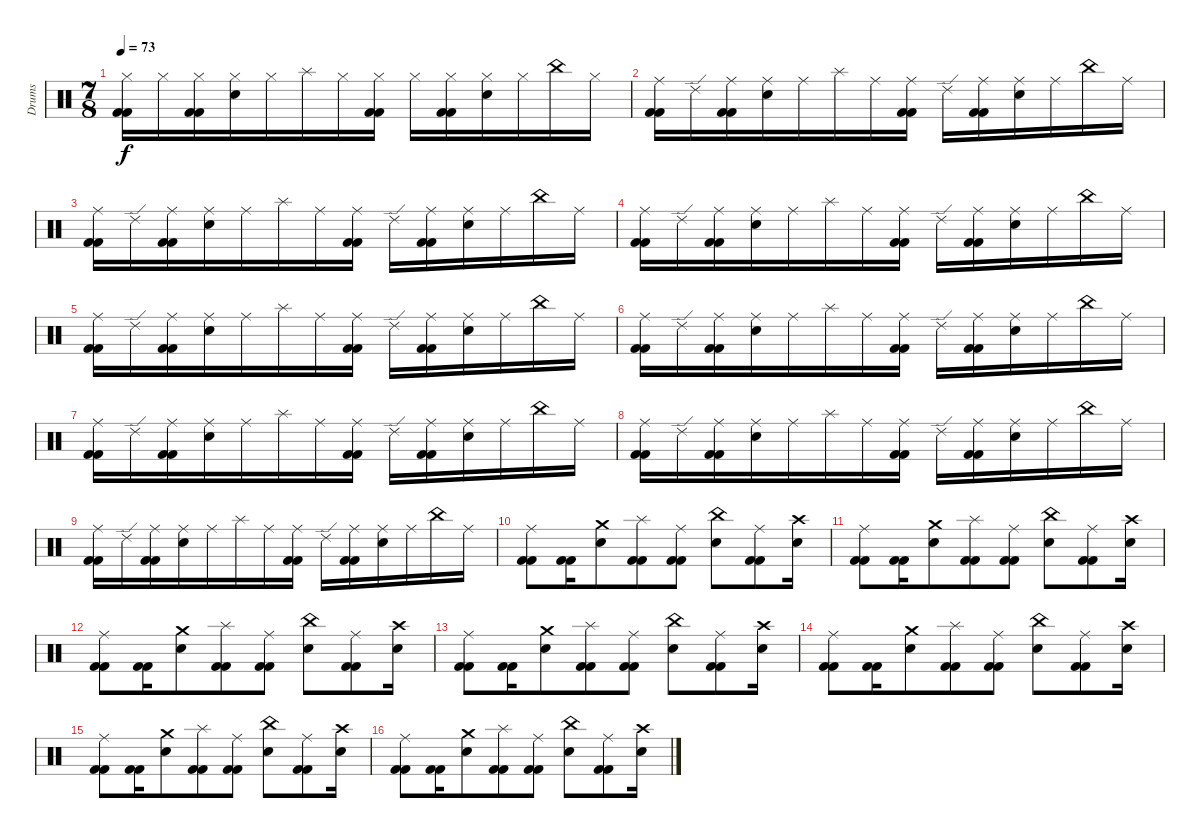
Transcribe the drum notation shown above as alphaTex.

\track ("Drums" "Drums") {instrument percussion}
\staff {score}
\articulation defaults
\ts (7 8)
\tempo 73
\clef neutral
\ks c
("Hi-Hat (closed)" "Kick (hit) 2" "Kick (hit) 2").16{dy f} "Hi-Hat (closed)".16 ("Hi-Hat (closed)" "Kick (hit) 2" "Kick (hit) 2").16 ("Hi-Hat (closed)" "Snare (hit) 2").16 "Hi-Hat (closed)".16 "Splash (hit)".16 "Hi-Hat (closed)".16 ("Hi-Hat (closed)" "Kick (hit) 2" "Kick (hit) 2").16 "Hi-Hat (closed)".16 ("Hi-Hat (closed)" "Kick (hit) 2" "Kick (hit) 2").16 ("Hi-Hat (closed)" "Snare (hit) 2").16 "Hi-Hat (closed)".16 "China (hit)".16 "Hi-Hat (closed)".16 |
("Ride (middle)" "Kick (hit) 2" "Kick (hit) 2").16 "Ride (edge) 2".16 ("Ride (middle)" "Kick (hit) 2" "Kick (hit) 2").16 ("Ride (middle)" "Snare (hit) 2").16 "Ride (middle)".16 "Splash (hit)".16 "Ride (middle)".16 ("Ride (middle)" "Kick (hit) 2" "Kick (hit) 2").16 "Ride (edge) 2".16 ("Ride (middle)" "Kick (hit) 2" "Kick (hit) 2").16 ("Ride (middle)" "Snare (hit) 2").16 "Ride (middle)".16 "China (hit)".16 "Ride (middle)".16 |
("Ride (middle)" "Kick (hit) 2" "Kick (hit) 2").16 "Ride (edge) 2".16 ("Ride (middle)" "Kick (hit) 2" "Kick (hit) 2").16 ("Ride (middle)" "Snare (hit) 2").16 "Ride (middle)".16 "Splash (hit)".16 "Ride (middle)".16 ("Ride (middle)" "Kick (hit) 2" "Kick (hit) 2").16 "Ride (edge) 2".16 ("Ride (middle)" "Kick (hit) 2" "Kick (hit) 2").16 ("Ride (middle)" "Snare (hit) 2").16 "Ride (middle)".16 "China (hit)".16 "Ride (middle)".16 |
("Ride (middle)" "Kick (hit) 2" "Kick (hit) 2").16 "Ride (edge) 2".16 ("Ride (middle)" "Kick (hit) 2" "Kick (hit) 2").16 ("Ride (middle)" "Snare (hit) 2").16 "Ride (middle)".16 "Splash (hit)".16 "Ride (middle)".16 ("Ride (middle)" "Kick (hit) 2" "Kick (hit) 2").16 "Ride (edge) 2".16 ("Ride (middle)" "Kick (hit) 2" "Kick (hit) 2").16 ("Ride (middle)" "Snare (hit) 2").16 "Ride (middle)".16 "China (hit)".16 "Ride (middle)".16 |
("Ride (middle)" "Kick (hit) 2" "Kick (hit) 2").16 "Ride (edge) 2".16 ("Ride (middle)" "Kick (hit) 2" "Kick (hit) 2").16 ("Ride (middle)" "Snare (hit) 2").16 "Ride (middle)".16 "Splash (hit)".16 "Ride (middle)".16 ("Ride (middle)" "Kick (hit) 2" "Kick (hit) 2").16 "Ride (edge) 2".16 ("Ride (middle)" "Kick (hit) 2" "Kick (hit) 2").16 ("Ride (middle)" "Snare (hit) 2").16 "Ride (middle)".16 "China (hit)".16 "Ride (middle)".16 |
("Ride (middle)" "Kick (hit) 2" "Kick (hit) 2").16 "Ride (edge) 2".16 ("Ride (middle)" "Kick (hit) 2" "Kick (hit) 2").16 ("Ride (middle)" "Snare (hit) 2").16 "Ride (middle)".16 "Splash (hit)".16 "Ride (middle)".16 ("Ride (middle)" "Kick (hit) 2" "Kick (hit) 2").16 "Ride (edge) 2".16 ("Ride (middle)" "Kick (hit) 2" "Kick (hit) 2").16 ("Ride (middle)" "Snare (hit) 2").16 "Ride (middle)".16 "China (hit)".16 "Ride (middle)".16 |
("Ride (middle)" "Kick (hit) 2" "Kick (hit) 2").16 "Ride (edge) 2".16 ("Ride (middle)" "Kick (hit) 2" "Kick (hit) 2").16 ("Ride (middle)" "Snare (hit) 2").16 "Ride (middle)".16 "Splash (hit)".16 "Ride (middle)".16 ("Ride (middle)" "Kick (hit) 2" "Kick (hit) 2").16 "Ride (edge) 2".16 ("Ride (middle)" "Kick (hit) 2" "Kick (hit) 2").16 ("Ride (middle)" "Snare (hit) 2").16 "Ride (middle)".16 "China (hit)".16 "Ride (middle)".16 |
("Ride (middle)" "Kick (hit) 2" "Kick (hit) 2").16 "Ride (edge) 2".16 ("Ride (middle)" "Kick (hit) 2" "Kick (hit) 2").16 ("Ride (middle)" "Snare (hit) 2").16 "Ride (middle)".16 "Splash (hit)".16 "Ride (middle)".16 ("Ride (middle)" "Kick (hit) 2" "Kick (hit) 2").16 "Ride (edge) 2".16 ("Ride (middle)" "Kick (hit) 2" "Kick (hit) 2").16 ("Ride (middle)" "Snare (hit) 2").16 "Ride (middle)".16 "China (hit)".16 "Ride (middle)".16 |
("Ride (middle)" "Kick (hit) 2" "Kick (hit) 2").16 "Ride (edge) 2".16 ("Ride (middle)" "Kick (hit) 2" "Kick (hit) 2").16 ("Ride (middle)" "Snare (hit) 2").16 "Ride (middle)".16 "Splash (hit)".16 "Ride (middle)".16 ("Ride (middle)" "Kick (hit) 2" "Kick (hit) 2").16 "Ride (edge) 2".16 ("Ride (middle)" "Kick (hit) 2" "Kick (hit) 2").16 ("Ride (middle)" "Snare (hit) 2").16 "Ride (middle)".16 "China (hit)".16 "Ride (middle)".16 |
("Ride (middle)" "Kick (hit) 2" "Kick (hit) 2").8 ("Kick (hit) 2" "Kick (hit) 2").16 ("Crash medium (hit)" "Snare (hit) 2").8 ("Splash (hit)" "Kick (hit) 2" "Kick (hit) 2").8 ("Ride (middle)" "Kick (hit) 2" "Kick (hit) 2").8 ("China (hit)" "Snare (hit) 2").8 ("Ride (middle)" "Kick (hit) 2" "Kick (hit) 2").8 ("Crash high (hit)" "Snare (hit) 2").16 |
("Ride (middle)" "Kick (hit) 2" "Kick (hit) 2").8 ("Kick (hit) 2" "Kick (hit) 2").16 ("Crash medium (hit)" "Snare (hit) 2").8 ("Splash (hit)" "Kick (hit) 2" "Kick (hit) 2").8 ("Ride (middle)" "Kick (hit) 2" "Kick (hit) 2").8 ("China (hit)" "Snare (hit) 2").8 ("Ride (middle)" "Kick (hit) 2" "Kick (hit) 2").8 ("Crash high (hit)" "Snare (hit) 2").16 |
("Ride (middle)" "Kick (hit) 2" "Kick (hit) 2").8 ("Kick (hit) 2" "Kick (hit) 2").16 ("Crash medium (hit)" "Snare (hit) 2").8 ("Splash (hit)" "Kick (hit) 2" "Kick (hit) 2").8 ("Ride (middle)" "Kick (hit) 2" "Kick (hit) 2").8 ("China (hit)" "Snare (hit) 2").8 ("Ride (middle)" "Kick (hit) 2" "Kick (hit) 2").8 ("Crash high (hit)" "Snare (hit) 2").16 |
("Ride (middle)" "Kick (hit) 2" "Kick (hit) 2").8 ("Kick (hit) 2" "Kick (hit) 2").16 ("Crash medium (hit)" "Snare (hit) 2").8 ("Splash (hit)" "Kick (hit) 2" "Kick (hit) 2").8 ("Ride (middle)" "Kick (hit) 2" "Kick (hit) 2").8 ("China (hit)" "Snare (hit) 2").8 ("Ride (middle)" "Kick (hit) 2" "Kick (hit) 2").8 ("Crash high (hit)" "Snare (hit) 2").16 |
("Ride (middle)" "Kick (hit) 2" "Kick (hit) 2").8 ("Kick (hit) 2" "Kick (hit) 2").16 ("Crash medium (hit)" "Snare (hit) 2").8 ("Splash (hit)" "Kick (hit) 2" "Kick (hit) 2").8 ("Ride (middle)" "Kick (hit) 2" "Kick (hit) 2").8 ("China (hit)" "Snare (hit) 2").8 ("Ride (middle)" "Kick (hit) 2" "Kick (hit) 2").8 ("Crash high (hit)" "Snare (hit) 2").16 |
("Ride (middle)" "Kick (hit) 2" "Kick (hit) 2").8 ("Kick (hit) 2" "Kick (hit) 2").16 ("Crash medium (hit)" "Snare (hit) 2").8 ("Splash (hit)" "Kick (hit) 2" "Kick (hit) 2").8 ("Ride (middle)" "Kick (hit) 2" "Kick (hit) 2").8 ("China (hit)" "Snare (hit) 2").8 ("Ride (middle)" "Kick (hit) 2" "Kick (hit) 2").8 ("Crash high (hit)" "Snare (hit) 2").16 |
("Ride (middle)" "Kick (hit) 2" "Kick (hit) 2").8 ("Kick (hit) 2" "Kick (hit) 2").16 ("Crash medium (hit)" "Snare (hit) 2").8 ("Splash (hit)" "Kick (hit) 2" "Kick (hit) 2").8 ("Ride (middle)" "Kick (hit) 2" "Kick (hit) 2").8 ("China (hit)" "Snare (hit) 2").8 ("Ride (middle)" "Kick (hit) 2" "Kick (hit) 2").8 ("Crash high (hit)" "Snare (hit) 2").16
